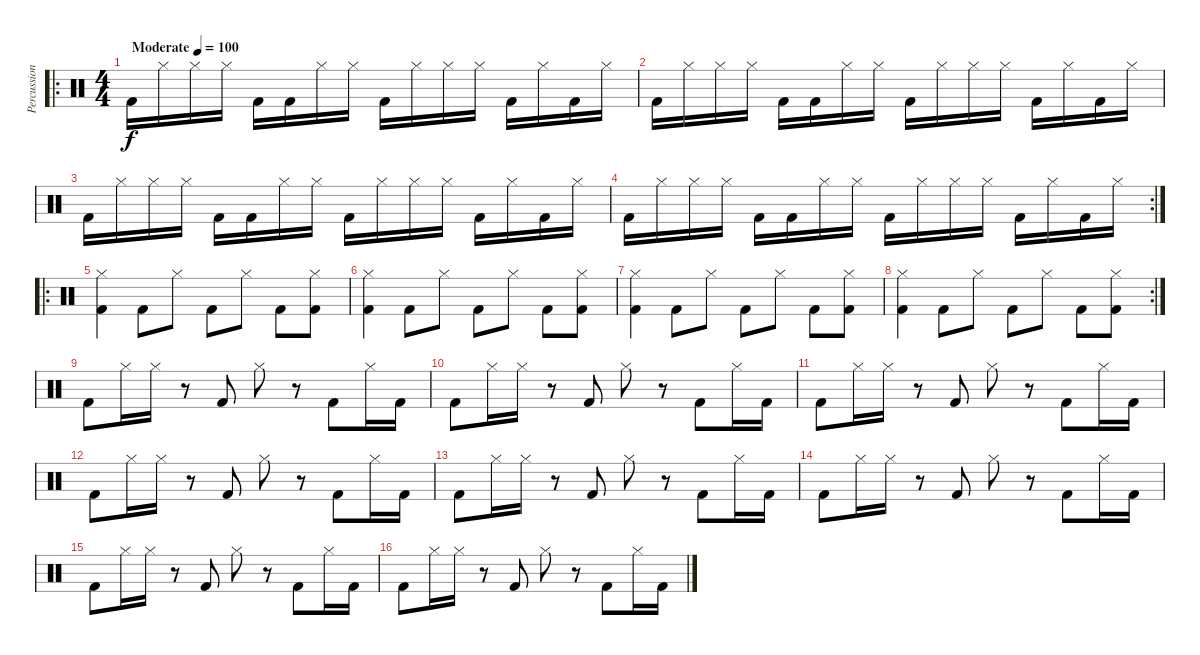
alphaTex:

\track ("Percussion" "Percussion") {instrument percussion}
\staff {score}
\articulation defaults
\ro
\ts (4 4)
\tempo (100 "Moderate")
\clef neutral
\ks c "Kick (hit) 2".16{dy f} "Hi-Hat (closed)".16 "Hi-Hat (closed)".16 "Hi-Hat (closed)".16 "Kick (hit) 2".16 "Kick (hit) 2".16 "Hi-Hat (closed)".16 "Hi-Hat (closed)".16 "Kick (hit) 2".16 "Hi-Hat (closed)".16 "Hi-Hat (closed)".16 "Hi-Hat (closed)".16 "Kick (hit) 2".16 "Hi-Hat (closed)".16 "Kick (hit) 2".16 "Hi-Hat (closed)".16
|
"Kick (hit) 2".16 "Hi-Hat (closed)".16 "Hi-Hat (closed)".16 "Hi-Hat (closed)".16 "Kick (hit) 2".16 "Kick (hit) 2".16 "Hi-Hat (closed)".16 "Hi-Hat (closed)".16 "Kick (hit) 2".16 "Hi-Hat (closed)".16 "Hi-Hat (closed)".16 "Hi-Hat (closed)".16 "Kick (hit) 2".16 "Hi-Hat (closed)".16 "Kick (hit) 2".16 "Hi-Hat (closed)".16 |
"Kick (hit) 2".16 "Hi-Hat (closed)".16 "Hi-Hat (closed)".16 "Hi-Hat (closed)".16 "Kick (hit) 2".16 "Kick (hit) 2".16 "Hi-Hat (closed)".16 "Hi-Hat (closed)".16 "Kick (hit) 2".16 "Hi-Hat (closed)".16 "Hi-Hat (closed)".16 "Hi-Hat (closed)".16 "Kick (hit) 2".16 "Hi-Hat (closed)".16 "Kick (hit) 2".16 "Hi-Hat (closed)".16 |
\rc 2 "Kick (hit) 2".16 "Hi-Hat (closed)".16 "Hi-Hat (closed)".16 "Hi-Hat (closed)".16 "Kick (hit) 2".16 "Kick (hit) 2".16 "Hi-Hat (closed)".16 "Hi-Hat (closed)".16 "Kick (hit) 2".16 "Hi-Hat (closed)".16 "Hi-Hat (closed)".16 "Hi-Hat (closed)".16 "Kick (hit) 2".16 "Hi-Hat (closed)".16 "Kick (hit) 2".16 "Hi-Hat (closed)".16
|
\ro
("Kick (hit) 2" "Hi-Hat (closed)").4 "Kick (hit) 2".8 "Hi-Hat (closed)".8 "Kick (hit) 2".8 "Hi-Hat (closed)".8 "Kick (hit) 2".8 ("Kick (hit) 2" "Hi-Hat (closed)").8 |
("Kick (hit) 2" "Hi-Hat (closed)").4 "Kick (hit) 2".8 "Hi-Hat (closed)".8 "Kick (hit) 2".8 "Hi-Hat (closed)".8 "Kick (hit) 2".8 ("Kick (hit) 2" "Hi-Hat (closed)").8 |
("Kick (hit) 2" "Hi-Hat (closed)").4 "Kick (hit) 2".8 "Hi-Hat (closed)".8 "Kick (hit) 2".8 "Hi-Hat (closed)".8 "Kick (hit) 2".8 ("Kick (hit) 2" "Hi-Hat (closed)").8 |
\rc 2
("Kick (hit) 2" "Hi-Hat (closed)").4 "Kick (hit) 2".8 "Hi-Hat (closed)".8 "Kick (hit) 2".8 "Hi-Hat (closed)".8 "Kick (hit) 2".8 ("Kick (hit) 2" "Hi-Hat (closed)").8 |
"Kick (hit) 2".8 "Hi-Hat (closed)".16 "Hi-Hat (closed)".16 r.8 "Kick (hit) 2".8 "Hi-Hat (closed)".8 r.8 "Kick (hit) 2".8 "Hi-Hat (closed)".16 "Kick (hit) 2".16 |
"Kick (hit) 2".8 "Hi-Hat (closed)".16 "Hi-Hat (closed)".16 r.8 "Kick (hit) 2".8 "Hi-Hat (closed)".8 r.8 "Kick (hit) 2".8 "Hi-Hat (closed)".16 "Kick (hit) 2".16 |
"Kick (hit) 2".8 "Hi-Hat (closed)".16 "Hi-Hat (closed)".16 r.8 "Kick (hit) 2".8 "Hi-Hat (closed)".8 r.8 "Kick (hit) 2".8 "Hi-Hat (closed)".16 "Kick (hit) 2".16 |
"Kick (hit) 2".8 "Hi-Hat (closed)".16 "Hi-Hat (closed)".16 r.8 "Kick (hit) 2".8 "Hi-Hat (closed)".8 r.8 "Kick (hit) 2".8 "Hi-Hat (closed)".16 "Kick (hit) 2".16 |
"Kick (hit) 2".8 "Hi-Hat (closed)".16 "Hi-Hat (closed)".16 r.8 "Kick (hit) 2".8 "Hi-Hat (closed)".8 r.8 "Kick (hit) 2".8 "Hi-Hat (closed)".16 "Kick (hit) 2".16 |
"Kick (hit) 2".8 "Hi-Hat (closed)".16 "Hi-Hat (closed)".16 r.8 "Kick (hit) 2".8 "Hi-Hat (closed)".8 r.8 "Kick (hit) 2".8 "Hi-Hat (closed)".16 "Kick (hit) 2".16 |
"Kick (hit) 2".8 "Hi-Hat (closed)".16 "Hi-Hat (closed)".16 r.8 "Kick (hit) 2".8 "Hi-Hat (closed)".8 r.8 "Kick (hit) 2".8 "Hi-Hat (closed)".16 "Kick (hit) 2".16 |
"Kick (hit) 2".8 "Hi-Hat (closed)".16 "Hi-Hat (closed)".16 r.8 "Kick (hit) 2".8 "Hi-Hat (closed)".8 r.8 "Kick (hit) 2".8 "Hi-Hat (closed)".16 "Kick (hit) 2".16
